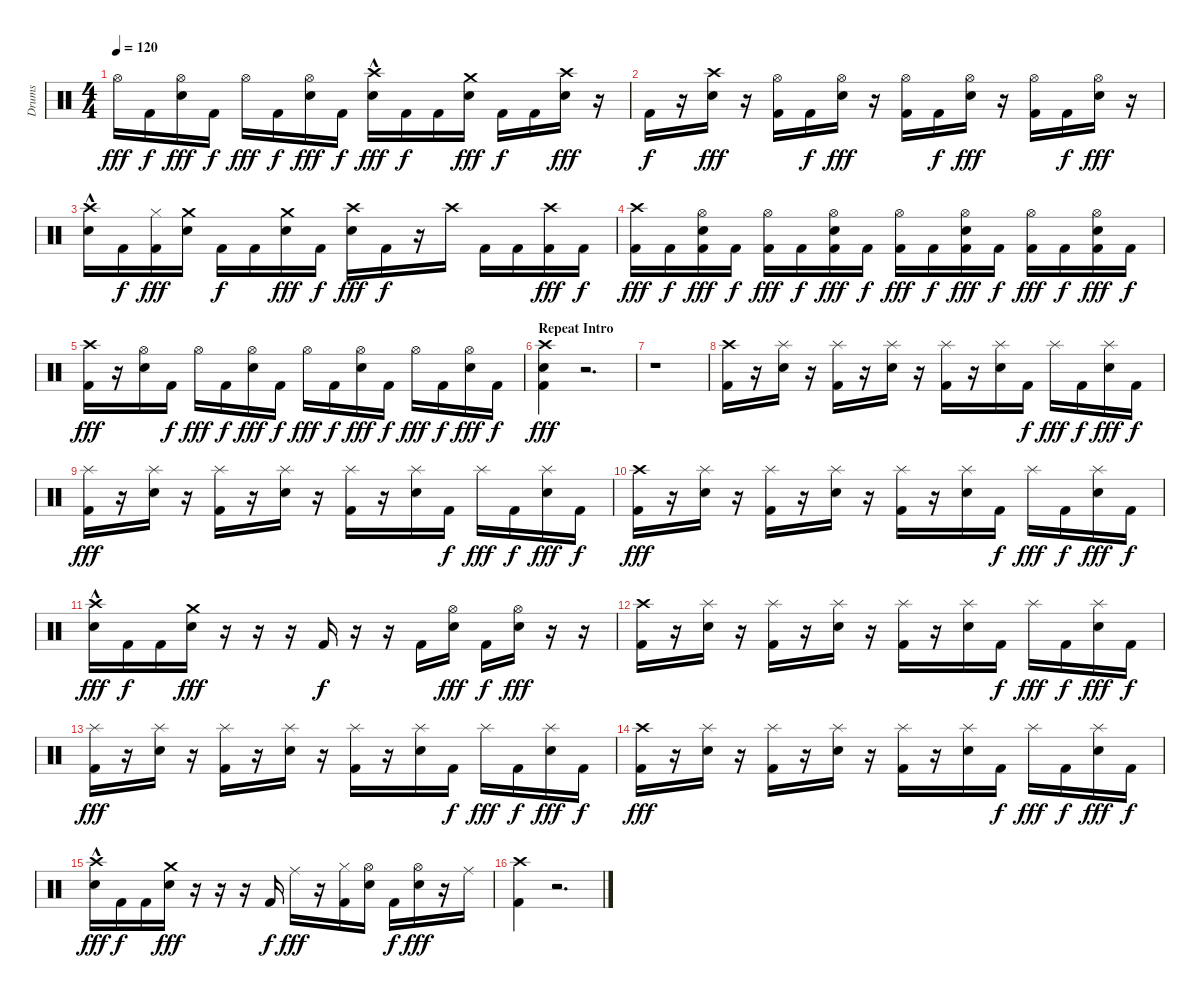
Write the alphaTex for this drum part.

\track ("Drums" "Drums") {instrument percussion}
\staff {score}
\articulation defaults
\ts (4 4)
\tempo 120
\clef neutral
\ks c "Hi-Hat (open)".16{dy fff} "Kick (hit) 2".16{dy f}
("Hi-Hat (open)" "Snare (hit) 2").16{dy fff} "Kick (hit) 2".16{dy f} "Hi-Hat (open)".16{dy fff} "Kick (hit) 2".16{dy f} ("Hi-Hat (open)" "Snare (hit) 2").16{dy fff} "Kick (hit) 2".16{dy f} ("Crash high (hit)"{hac} "Snare (hit) 2").16{dy fff} "Kick (hit) 2".16{dy f} "Kick (hit) 2".16 ("Crash medium (hit)" "Snare (hit) 2").16{dy fff} "Kick (hit) 2".16{dy f} "Kick (hit) 2".16 ("Crash high (hit)" "Snare (hit) 2").16{dy fff} r.16 |
"Kick (hit) 2".16{dy f} r.16 ("Crash high (hit)" "Snare (hit) 2").16{dy fff} r.16 ("Hi-Hat (open)" "Kick (hit) 2").16 "Kick (hit) 2".16{dy f} ("Hi-Hat (open)" "Snare (hit) 2").16{dy fff} r.16 ("Hi-Hat (open)" "Kick (hit) 2").16 "Kick (hit) 2".16{dy f} ("Hi-Hat (open)" "Snare (hit) 2").16{dy fff} r.16 ("Hi-Hat (open)" "Kick (hit) 2").16 "Kick (hit) 2".16{dy f} ("Hi-Hat (open)" "Snare (hit) 2").16{dy fff} r.16 |
("Crash high (hit)"{hac} "Snare (hit) 2").16 "Kick (hit) 2".16{dy f} ("Hi-Hat (closed)" "Kick (hit) 2").16{dy fff} ("Crash medium (hit)" "Snare (hit) 2").16 "Kick (hit) 2".16{dy f} "Kick (hit) 2".16 ("Crash medium (hit)" "Snare (hit) 2").16{dy fff} "Kick (hit) 2".16{dy f} ("Crash high (hit)" "Snare (hit) 2").16{dy fff} "Kick (hit) 2".16{dy f} r.16 "Crash high (hit)".16 "Kick (hit) 2".16 "Kick (hit) 2".16 ("Crash high (hit)" "Kick (hit) 2").16{dy fff} "Kick (hit) 2".16{dy f} |
("Crash high (hit)" "Kick (hit) 2").16{dy fff} "Kick (hit) 2".16{dy f} ("Hi-Hat (open)" "Snare (hit) 2" "Kick (hit) 2").16{dy fff} "Kick (hit) 2".16{dy f} ("Hi-Hat (open)" "Kick (hit) 2").16{dy fff} "Kick (hit) 2".16{dy f} ("Hi-Hat (open)" "Snare (hit) 2" "Kick (hit) 2").16{dy fff} "Kick (hit) 2".16{dy f} ("Hi-Hat (open)" "Kick (hit) 2").16{dy fff} "Kick (hit) 2".16{dy f} ("Hi-Hat (open)" "Snare (hit) 2" "Kick (hit) 2").16{dy fff} "Kick (hit) 2".16{dy f} ("Hi-Hat (open)" "Kick (hit) 2").16{dy fff} "Kick (hit) 2".16{dy f} ("Hi-Hat (open)" "Snare (hit) 2" "Kick (hit) 2").16{dy fff} "Kick (hit) 2".16{dy f} |
("Crash high (hit)" "Kick (hit) 2").16{dy fff} r.16 ("Hi-Hat (open)" "Snare (hit) 2").16 "Kick (hit) 2".16{dy f} "Hi-Hat (open)".16{dy fff} "Kick (hit) 2".16{dy f} ("Hi-Hat (open)" "Snare (hit) 2").16{dy fff} "Kick (hit) 2".16{dy f} "Hi-Hat (open)".16{dy fff} "Kick (hit) 2".16{dy f} ("Hi-Hat (open)" "Snare (hit) 2").16{dy fff} "Kick (hit) 2".16{dy f} "Hi-Hat (open)".16{dy fff} "Kick (hit) 2".16{dy f} ("Hi-Hat (open)" "Snare (hit) 2").16{dy fff} "Kick (hit) 2".16{dy f} |
\section ("" "Repeat Intro")
("Crash high (hit)" "Snare (hit) 2" "Kick (hit) 2").4{dy fff} r.2{d} |
r.1 |
("Crash high (hit)" "Kick (hit) 2").16 r.16 ("Splash (hit)" "Snare (hit) 2").16 r.16 ("Splash (hit)" "Kick (hit) 2").16 r.16 ("Splash (hit)" "Snare (hit) 2").16 r.16 ("Splash (hit)" "Kick (hit) 2").16 r.16 ("Splash (hit)" "Snare (hit) 2").16 "Kick (hit) 2".16{dy f} "Splash (hit)".16{dy fff} "Kick (hit) 2".16{dy f} ("Splash (hit)" "Snare (hit) 2").16{dy fff} "Kick (hit) 2".16{dy f} |
("Splash (hit)" "Kick (hit) 2").16{dy fff} r.16 ("Splash (hit)" "Snare (hit) 2").16 r.16 ("Splash (hit)" "Kick (hit) 2").16 r.16 ("Splash (hit)" "Snare (hit) 2").16 r.16 ("Splash (hit)" "Kick (hit) 2").16 r.16 ("Splash (hit)" "Snare (hit) 2").16 "Kick (hit) 2".16{dy f} "Splash (hit)".16{dy fff} "Kick (hit) 2".16{dy f} ("Splash (hit)" "Snare (hit) 2").16{dy fff} "Kick (hit) 2".16{dy f} |
("Crash high (hit)" "Kick (hit) 2").16{dy fff} r.16 ("Splash (hit)" "Snare (hit) 2").16 r.16 ("Splash (hit)" "Kick (hit) 2").16 r.16 ("Splash (hit)" "Snare (hit) 2").16 r.16 ("Splash (hit)" "Kick (hit) 2").16 r.16 ("Splash (hit)" "Snare (hit) 2").16 "Kick (hit) 2".16{dy f} "Splash (hit)".16{dy fff} "Kick (hit) 2".16{dy f} ("Splash (hit)" "Snare (hit) 2").16{dy fff} "Kick (hit) 2".16{dy f} |
("Crash high (hit)"{hac} "Snare (hit) 2").16{dy fff} "Kick (hit) 2".16{dy f} "Kick (hit) 2".16 ("Crash medium (hit)" "Snare (hit) 2").16{dy fff} r.16 r.16 r.16 "Kick (hit) 2".16{dy f} r.16 r.16 "Kick (hit) 2".16 ("Hi-Hat (open)" "Snare (hit) 2").16{dy fff} "Kick (hit) 2".16{dy f} ("Hi-Hat (open)" "Snare (hit) 2").16{dy fff} r.16 r.16 |
("Crash high (hit)" "Kick (hit) 2").16 r.16 ("Splash (hit)" "Snare (hit) 2").16 r.16 ("Splash (hit)" "Kick (hit) 2").16 r.16 ("Splash (hit)" "Snare (hit) 2").16 r.16 ("Splash (hit)" "Kick (hit) 2").16 r.16 ("Splash (hit)" "Snare (hit) 2").16 "Kick (hit) 2".16{dy f} "Splash (hit)".16{dy fff} "Kick (hit) 2".16{dy f} ("Splash (hit)" "Snare (hit) 2").16{dy fff} "Kick (hit) 2".16{dy f} |
("Splash (hit)" "Kick (hit) 2").16{dy fff} r.16 ("Splash (hit)" "Snare (hit) 2").16 r.16 ("Splash (hit)" "Kick (hit) 2").16 r.16 ("Splash (hit)" "Snare (hit) 2").16 r.16 ("Splash (hit)" "Kick (hit) 2").16 r.16 ("Splash (hit)" "Snare (hit) 2").16 "Kick (hit) 2".16{dy f} "Splash (hit)".16{dy fff} "Kick (hit) 2".16{dy f} ("Splash (hit)" "Snare (hit) 2").16{dy fff} "Kick (hit) 2".16{dy f} |
("Crash high (hit)" "Kick (hit) 2").16{dy fff} r.16 ("Splash (hit)" "Snare (hit) 2").16 r.16 ("Splash (hit)" "Kick (hit) 2").16 r.16 ("Splash (hit)" "Snare (hit) 2").16 r.16 ("Splash (hit)" "Kick (hit) 2").16 r.16 ("Splash (hit)" "Snare (hit) 2").16 "Kick (hit) 2".16{dy f} "Splash (hit)".16{dy fff} "Kick (hit) 2".16{dy f} ("Splash (hit)" "Snare (hit) 2").16{dy fff} "Kick (hit) 2".16{dy f} |
("Crash high (hit)"{hac} "Snare (hit) 2").16{dy fff} "Kick (hit) 2".16{dy f} "Kick (hit) 2".16 ("Crash medium (hit)" "Snare (hit) 2").16{dy fff} r.16 r.16 r.16 "Kick (hit) 2".16{dy f} "Ride (middle)".16{dy fff} r.16 ("Hi-Hat (closed)" "Kick (hit) 2").16 ("Hi-Hat (open)" "Snare (hit) 2").16 "Kick (hit) 2".16{dy f} ("Hi-Hat (open)" "Snare (hit) 2").16{dy fff} r.16 "Ride (middle)".16 |
("Crash high (hit)" "Kick (hit) 2").4 r.2{d}
